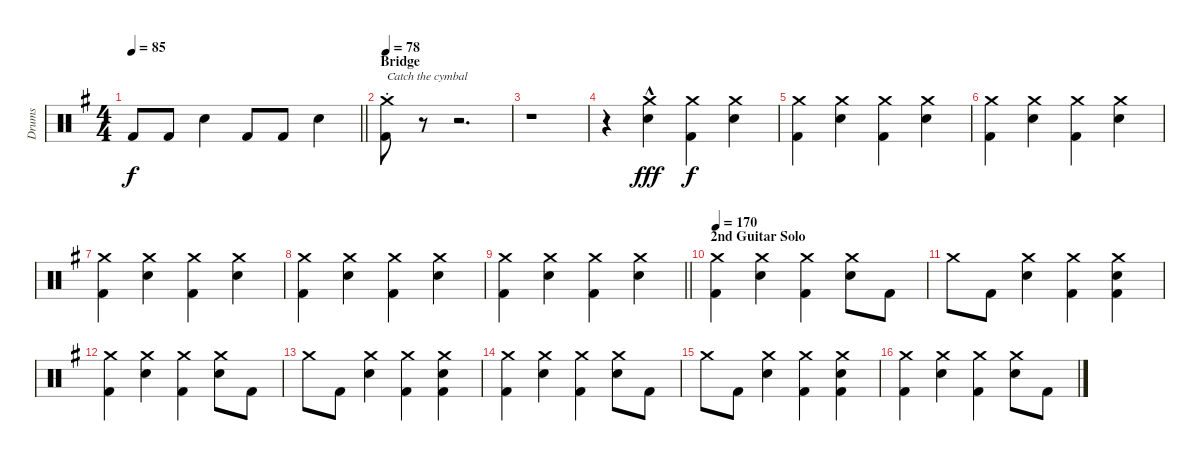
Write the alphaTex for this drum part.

\track ("Drums" "Drums") {instrument percussion}
\staff {score}
\articulation defaults
\ts (4 4)
\tempo 85
\clef neutral
\barLineRight lightlight
\ks eminor "Kick (hit) 2".8{dy f} "Kick (hit) 2".8 "Snare (hit) 2".4 "Kick (hit) 2".8 "Kick (hit) 2".8 "Snare (hit) 2".4
|
\section ("" "Bridge")
\tempo 78
("Crash medium (hit)"{st} "Kick (hit) 2").8{txt "Catch the cymbal"} r.8 r.2{d} |
r.1 |
r.4 ("Crash medium (hit)"{hac} "Snare (hit) 2"{hac}).4{dy fff} ("Crash medium (hit)" "Kick (hit) 2").4{dy f} ("Crash medium (hit)" "Snare (hit) 2").4 |
("Crash medium (hit)" "Kick (hit) 2").4 ("Crash medium (hit)" "Snare (hit) 2").4 ("Crash medium (hit)" "Kick (hit) 2").4 ("Crash medium (hit)" "Snare (hit) 2").4 |
("Crash medium (hit)" "Kick (hit) 2").4 ("Crash medium (hit)" "Snare (hit) 2").4 ("Crash medium (hit)" "Kick (hit) 2").4 ("Crash medium (hit)" "Snare (hit) 2").4 |
("Crash medium (hit)" "Kick (hit) 2").4 ("Crash medium (hit)" "Snare (hit) 2").4 ("Crash medium (hit)" "Kick (hit) 2").4 ("Crash medium (hit)" "Snare (hit) 2").4 |
("Crash medium (hit)" "Kick (hit) 2").4 ("Crash medium (hit)" "Snare (hit) 2").4 ("Crash medium (hit)" "Kick (hit) 2").4 ("Crash medium (hit)" "Snare (hit) 2").4 |
\barLineRight lightlight
("Crash medium (hit)" "Kick (hit) 2").4 ("Crash medium (hit)" "Snare (hit) 2").4 ("Crash medium (hit)" "Kick (hit) 2").4 ("Crash medium (hit)" "Snare (hit) 2").4 |
\section ("" "2nd Guitar Solo")
\tempo 170
("Crash medium (hit)" "Kick (hit) 2").4 ("Crash medium (hit)" "Snare (hit) 2").4 ("Crash medium (hit)" "Kick (hit) 2").4 ("Crash medium (hit)" "Snare (hit) 2").8 "Kick (hit) 2".8 |
"Crash medium (hit)".8 "Kick (hit) 2".8 ("Crash medium (hit)" "Snare (hit) 2").4 ("Crash medium (hit)" "Kick (hit) 2").4 ("Crash medium (hit)" "Snare (hit) 2" "Kick (hit) 2").4 |
("Crash medium (hit)" "Kick (hit) 2").4 ("Crash medium (hit)" "Snare (hit) 2").4 ("Crash medium (hit)" "Kick (hit) 2").4 ("Crash medium (hit)" "Snare (hit) 2").8 "Kick (hit) 2".8 |
"Crash medium (hit)".8 "Kick (hit) 2".8 ("Crash medium (hit)" "Snare (hit) 2").4 ("Crash medium (hit)" "Kick (hit) 2").4 ("Crash medium (hit)" "Snare (hit) 2" "Kick (hit) 2").4 |
("Crash medium (hit)" "Kick (hit) 2").4 ("Crash medium (hit)" "Snare (hit) 2").4 ("Crash medium (hit)" "Kick (hit) 2").4 ("Crash medium (hit)" "Snare (hit) 2").8 "Kick (hit) 2".8 |
"Crash medium (hit)".8 "Kick (hit) 2".8 ("Crash medium (hit)" "Snare (hit) 2").4 ("Crash medium (hit)" "Kick (hit) 2").4 ("Crash medium (hit)" "Snare (hit) 2" "Kick (hit) 2").4 |
("Crash medium (hit)" "Kick (hit) 2").4 ("Crash medium (hit)" "Snare (hit) 2").4 ("Crash medium (hit)" "Kick (hit) 2").4 ("Crash medium (hit)" "Snare (hit) 2").8 "Kick (hit) 2".8
